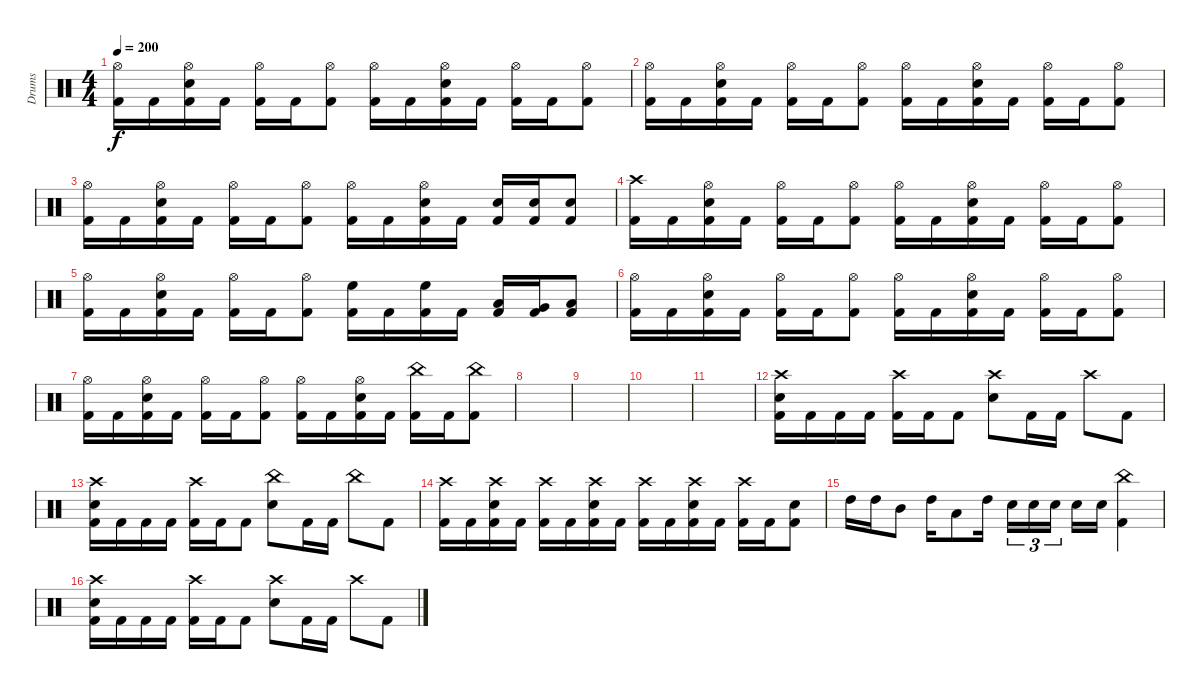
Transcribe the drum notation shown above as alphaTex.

\track ("Drums" "Drums") {instrument percussion}
\staff {score}
\articulation defaults
\ts (4 4)
\tempo 200
\clef neutral
\ks c
("Hi-Hat (open)" "Kick (hit) 2").16{dy f} "Kick (hit) 2".16 ("Hi-Hat (open)" "Electric Snare (hit)" "Kick (hit) 2").16 "Kick (hit) 2".16 ("Hi-Hat (open)" "Kick (hit) 2").16 "Kick (hit) 2".16 ("Hi-Hat (open)" "Kick (hit) 2").8 ("Hi-Hat (open)" "Kick (hit) 2").16 "Kick (hit) 2".16 ("Hi-Hat (open)" "Electric Snare (hit)" "Kick (hit) 2").16 "Kick (hit) 2".16 ("Hi-Hat (open)" "Kick (hit) 2").16 "Kick (hit) 2".16 ("Hi-Hat (open)" "Kick (hit) 2").8 |
("Hi-Hat (open)" "Kick (hit) 2").16 "Kick (hit) 2".16 ("Hi-Hat (open)" "Electric Snare (hit)" "Kick (hit) 2").16 "Kick (hit) 2".16 ("Hi-Hat (open)" "Kick (hit) 2").16 "Kick (hit) 2".16 ("Hi-Hat (open)" "Kick (hit) 2").8 ("Hi-Hat (open)" "Kick (hit) 2").16 "Kick (hit) 2".16 ("Hi-Hat (open)" "Electric Snare (hit)" "Kick (hit) 2").16 "Kick (hit) 2".16 ("Hi-Hat (open)" "Kick (hit) 2").16 "Kick (hit) 2".16 ("Hi-Hat (open)" "Kick (hit) 2").8 |
("Hi-Hat (open)" "Kick (hit) 2").16 "Kick (hit) 2".16 ("Hi-Hat (open)" "Electric Snare (hit)" "Kick (hit) 2").16 "Kick (hit) 2".16 ("Hi-Hat (open)" "Kick (hit) 2").16 "Kick (hit) 2".16 ("Hi-Hat (open)" "Kick (hit) 2").8 ("Hi-Hat (open)" "Kick (hit) 2").16 "Kick (hit) 2".16 ("Hi-Hat (open)" "Electric Snare (hit)" "Kick (hit) 2").16 "Kick (hit) 2".16 ("Electric Snare (hit)" "Kick (hit) 2").16 ("Electric Snare (hit)" "Kick (hit) 2").16 ("Electric Snare (hit)" "Kick (hit) 2").8 |
("Crash high (hit)" "Kick (hit) 2").16 "Kick (hit) 2".16 ("Hi-Hat (open)" "Electric Snare (hit)" "Kick (hit) 2").16 "Kick (hit) 2".16 ("Hi-Hat (open)" "Kick (hit) 2").16 "Kick (hit) 2".16 ("Hi-Hat (open)" "Kick (hit) 2").8 ("Hi-Hat (open)" "Kick (hit) 2").16 "Kick (hit) 2".16 ("Hi-Hat (open)" "Electric Snare (hit)" "Kick (hit) 2").16 "Kick (hit) 2".16 ("Hi-Hat (open)" "Kick (hit) 2").16 "Kick (hit) 2".16 ("Hi-Hat (open)" "Kick (hit) 2").8 |
("Hi-Hat (open)" "Kick (hit) 2").16 "Kick (hit) 2".16 ("Hi-Hat (open)" "Electric Snare (hit)" "Kick (hit) 2").16 "Kick (hit) 2".16 ("Hi-Hat (open)" "Kick (hit) 2").16 "Kick (hit) 2".16 ("Hi-Hat (open)" "Kick (hit) 2").8 ("High Floor Tom (hit)" "Kick (hit) 2").16 "Kick (hit) 2".16 ("High Floor Tom (hit)" "Kick (hit) 2").16 "Kick (hit) 2".16 ("Low Tom (hit)" "Kick (hit) 2").16 ("Very Low Tom (hit)" "Kick (hit) 2").16 ("Low Floor Tom (hit)" "Kick (hit) 2").8 |
("Hi-Hat (open)" "Kick (hit) 2").16 "Kick (hit) 2".16 ("Hi-Hat (open)" "Electric Snare (hit)" "Kick (hit) 2").16 "Kick (hit) 2".16 ("Hi-Hat (open)" "Kick (hit) 2").16 "Kick (hit) 2".16 ("Hi-Hat (open)" "Kick (hit) 2").8 ("Hi-Hat (open)" "Kick (hit) 2").16 "Kick (hit) 2".16 ("Hi-Hat (open)" "Electric Snare (hit)" "Kick (hit) 2").16 "Kick (hit) 2".16 ("Hi-Hat (open)" "Kick (hit) 2").16 "Kick (hit) 2".16 ("Hi-Hat (open)" "Kick (hit) 2").8 |
("Hi-Hat (open)" "Kick (hit) 2").16 "Kick (hit) 2".16 ("Hi-Hat (open)" "Electric Snare (hit)" "Kick (hit) 2").16 "Kick (hit) 2".16 ("Hi-Hat (open)" "Kick (hit) 2").16 "Kick (hit) 2".16 ("Hi-Hat (open)" "Kick (hit) 2").8 ("Hi-Hat (open)" "Kick (hit) 2").16 "Kick (hit) 2".16 ("Hi-Hat (open)" "Electric Snare (hit)" "Kick (hit) 2").16 "Kick (hit) 2".16 ("China (hit)" "Kick (hit) 2").16 "Kick (hit) 2".16 ("China (hit)" "Kick (hit) 2").8 |
|
|
|
|
("Crash high (hit)" "Electric Snare (hit)" "Kick (hit) 2").16 "Kick (hit) 2".16 "Kick (hit) 2".16 "Kick (hit) 2".16 ("Crash high (hit)" "Kick (hit) 2").16 "Kick (hit) 2".16 "Kick (hit) 2".8 ("Crash high (hit)" "Electric Snare (hit)").8 "Kick (hit) 2".16 "Kick (hit) 2".16 "Crash high (hit)".8 "Kick (hit) 2".8 |
("Crash high (hit)" "Electric Snare (hit)" "Kick (hit) 2").16 "Kick (hit) 2".16 "Kick (hit) 2".16 "Kick (hit) 2".16 ("Crash high (hit)" "Kick (hit) 2").16 "Kick (hit) 2".16 "Kick (hit) 2".8 ("China (hit)" "Electric Snare (hit)").8 "Kick (hit) 2".16 "Kick (hit) 2".16 "China (hit)".8 "Kick (hit) 2".8 |
("Crash high (hit)" "Kick (hit) 2").16 "Kick (hit) 2".16 ("Crash high (hit)" "Electric Snare (hit)" "Kick (hit) 2").16 "Kick (hit) 2".16 ("Crash high (hit)" "Kick (hit) 2").16 "Kick (hit) 2".16 ("Crash high (hit)" "Electric Snare (hit)" "Kick (hit) 2").16 "Kick (hit) 2".16 ("Crash high (hit)" "Kick (hit) 2").16 "Kick (hit) 2".16 ("Crash high (hit)" "Electric Snare (hit)" "Kick (hit) 2").16 "Kick (hit) 2".16 ("Crash high (hit)" "Kick (hit) 2").16 "Kick (hit) 2".16 ("Electric Snare (hit)" "Kick (hit) 2").8 |
"High Tom (hit)".16 "High Tom (hit)".16 "Mid Tom (hit)".8 "High Tom (hit)".16 "Low Tom (hit)".8 "High Tom (hit)".16 "Electric Snare (hit)".16{tu (3 2)} "Electric Snare (hit)".16{tu (3 2)} "Electric Snare (hit)".16{tu (3 2)} "Electric Snare (hit)".16 "Electric Snare (hit)".16 ("China (hit)" "Kick (hit) 2").4 |
("Crash high (hit)" "Electric Snare (hit)" "Kick (hit) 2").16 "Kick (hit) 2".16 "Kick (hit) 2".16 "Kick (hit) 2".16 ("Crash high (hit)" "Kick (hit) 2").16 "Kick (hit) 2".16 "Kick (hit) 2".8 ("Crash high (hit)" "Electric Snare (hit)").8 "Kick (hit) 2".16 "Kick (hit) 2".16 "Crash high (hit)".8 "Kick (hit) 2".8
